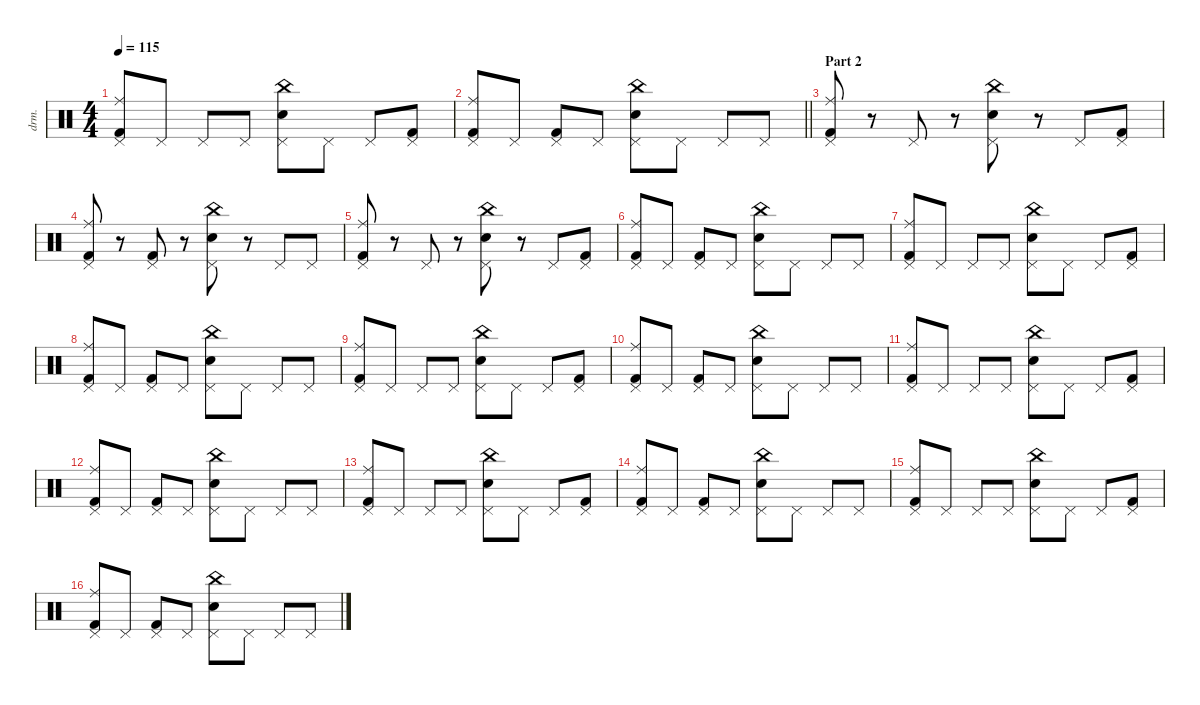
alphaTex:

\defaultSystemsLayout 4
\hideDynamics
\bracketExtendMode nobrackets
\otherSystemsTrackNameOrientation horizontal
\track ("Drums" "drm.") {instrument percussion}
\staff {score}
\articulation defaults
\ts (4 4)
\tempo 115
\clef neutral
\ks c
("Pedal Hi-Hat (hit)" "Ride (middle)" "Kick (hit) 2").8{dy f} "Pedal Hi-Hat (hit)".8 "Pedal Hi-Hat (hit)".8 "Pedal Hi-Hat (hit)".8 ("Pedal Hi-Hat (hit)" "Snare (hit) 2" "China (hit)").8 "Pedal Hi-Hat (hit)".8 "Pedal Hi-Hat (hit)".8 ("Pedal Hi-Hat (hit)" "Kick (hit) 2").8 |
\barLineRight lightlight
("Pedal Hi-Hat (hit)" "Ride (middle)" "Kick (hit) 2").8 "Pedal Hi-Hat (hit)".8 ("Pedal Hi-Hat (hit)" "Kick (hit) 2").8 "Pedal Hi-Hat (hit)".8 ("Pedal Hi-Hat (hit)" "Snare (hit) 2" "China (hit)").8 "Pedal Hi-Hat (hit)".8 "Pedal Hi-Hat (hit)".8 "Pedal Hi-Hat (hit)".8 |
\section ("" "Part 2")
("Pedal Hi-Hat (hit)" "Ride (middle)" "Kick (hit) 2").8 r.8 "Pedal Hi-Hat (hit)".8 r.8 ("Pedal Hi-Hat (hit)" "Snare (hit) 2" "China (hit)").8 r.8 "Pedal Hi-Hat (hit)".8 ("Pedal Hi-Hat (hit)" "Kick (hit) 2").8 |
("Pedal Hi-Hat (hit)" "Ride (middle)" "Kick (hit) 2").8 r.8 ("Pedal Hi-Hat (hit)" "Kick (hit) 2").8 r.8 ("Pedal Hi-Hat (hit)" "Snare (hit) 2" "China (hit)").8 r.8 "Pedal Hi-Hat (hit)".8 "Pedal Hi-Hat (hit)".8 |
("Pedal Hi-Hat (hit)" "Ride (middle)" "Kick (hit) 2").8 r.8 "Pedal Hi-Hat (hit)".8 r.8 ("Pedal Hi-Hat (hit)" "Snare (hit) 2" "China (hit)").8 r.8 "Pedal Hi-Hat (hit)".8 ("Pedal Hi-Hat (hit)" "Kick (hit) 2").8 |
("Pedal Hi-Hat (hit)" "Ride (middle)" "Kick (hit) 2").8 "Pedal Hi-Hat (hit)".8 ("Pedal Hi-Hat (hit)" "Kick (hit) 2").8 "Pedal Hi-Hat (hit)".8 ("Pedal Hi-Hat (hit)" "Snare (hit) 2" "China (hit)").8 "Pedal Hi-Hat (hit)".8 "Pedal Hi-Hat (hit)".8 "Pedal Hi-Hat (hit)".8 |
("Pedal Hi-Hat (hit)" "Ride (middle)" "Kick (hit) 2").8 "Pedal Hi-Hat (hit)".8 "Pedal Hi-Hat (hit)".8 "Pedal Hi-Hat (hit)".8 ("Pedal Hi-Hat (hit)" "Snare (hit) 2" "China (hit)").8 "Pedal Hi-Hat (hit)".8 "Pedal Hi-Hat (hit)".8 ("Pedal Hi-Hat (hit)" "Kick (hit) 2").8 |
("Pedal Hi-Hat (hit)" "Ride (middle)" "Kick (hit) 2").8 "Pedal Hi-Hat (hit)".8 ("Pedal Hi-Hat (hit)" "Kick (hit) 2").8 "Pedal Hi-Hat (hit)".8 ("Pedal Hi-Hat (hit)" "Snare (hit) 2" "China (hit)").8 "Pedal Hi-Hat (hit)".8 "Pedal Hi-Hat (hit)".8 "Pedal Hi-Hat (hit)".8 |
("Pedal Hi-Hat (hit)" "Ride (middle)" "Kick (hit) 2").8 "Pedal Hi-Hat (hit)".8 "Pedal Hi-Hat (hit)".8 "Pedal Hi-Hat (hit)".8 ("Pedal Hi-Hat (hit)" "Snare (hit) 2" "China (hit)").8 "Pedal Hi-Hat (hit)".8 "Pedal Hi-Hat (hit)".8 ("Pedal Hi-Hat (hit)" "Kick (hit) 2").8 |
("Pedal Hi-Hat (hit)" "Ride (middle)" "Kick (hit) 2").8 "Pedal Hi-Hat (hit)".8 ("Pedal Hi-Hat (hit)" "Kick (hit) 2").8 "Pedal Hi-Hat (hit)".8 ("Pedal Hi-Hat (hit)" "Snare (hit) 2" "China (hit)").8 "Pedal Hi-Hat (hit)".8 "Pedal Hi-Hat (hit)".8 "Pedal Hi-Hat (hit)".8 |
("Pedal Hi-Hat (hit)" "Ride (middle)" "Kick (hit) 2").8 "Pedal Hi-Hat (hit)".8 "Pedal Hi-Hat (hit)".8 "Pedal Hi-Hat (hit)".8 ("Pedal Hi-Hat (hit)" "Snare (hit) 2" "China (hit)").8 "Pedal Hi-Hat (hit)".8 "Pedal Hi-Hat (hit)".8 ("Pedal Hi-Hat (hit)" "Kick (hit) 2").8 |
("Pedal Hi-Hat (hit)" "Ride (middle)" "Kick (hit) 2").8 "Pedal Hi-Hat (hit)".8 ("Pedal Hi-Hat (hit)" "Kick (hit) 2").8 "Pedal Hi-Hat (hit)".8 ("Pedal Hi-Hat (hit)" "Snare (hit) 2" "China (hit)").8 "Pedal Hi-Hat (hit)".8 "Pedal Hi-Hat (hit)".8 "Pedal Hi-Hat (hit)".8 |
("Pedal Hi-Hat (hit)" "Ride (middle)" "Kick (hit) 2").8 "Pedal Hi-Hat (hit)".8 "Pedal Hi-Hat (hit)".8 "Pedal Hi-Hat (hit)".8 ("Pedal Hi-Hat (hit)" "Snare (hit) 2" "China (hit)").8 "Pedal Hi-Hat (hit)".8 "Pedal Hi-Hat (hit)".8 ("Pedal Hi-Hat (hit)" "Kick (hit) 2").8 |
("Pedal Hi-Hat (hit)" "Ride (middle)" "Kick (hit) 2").8 "Pedal Hi-Hat (hit)".8 ("Pedal Hi-Hat (hit)" "Kick (hit) 2").8 "Pedal Hi-Hat (hit)".8 ("Pedal Hi-Hat (hit)" "Snare (hit) 2" "China (hit)").8 "Pedal Hi-Hat (hit)".8 "Pedal Hi-Hat (hit)".8 "Pedal Hi-Hat (hit)".8 |
("Pedal Hi-Hat (hit)" "Ride (middle)" "Kick (hit) 2").8 "Pedal Hi-Hat (hit)".8 "Pedal Hi-Hat (hit)".8 "Pedal Hi-Hat (hit)".8 ("Pedal Hi-Hat (hit)" "Snare (hit) 2" "China (hit)").8 "Pedal Hi-Hat (hit)".8 "Pedal Hi-Hat (hit)".8 ("Pedal Hi-Hat (hit)" "Kick (hit) 2").8 |
("Pedal Hi-Hat (hit)" "Ride (middle)" "Kick (hit) 2").8 "Pedal Hi-Hat (hit)".8 ("Pedal Hi-Hat (hit)" "Kick (hit) 2").8 "Pedal Hi-Hat (hit)".8 ("Pedal Hi-Hat (hit)" "Snare (hit) 2" "China (hit)").8 "Pedal Hi-Hat (hit)".8 "Pedal Hi-Hat (hit)".8 "Pedal Hi-Hat (hit)".8
